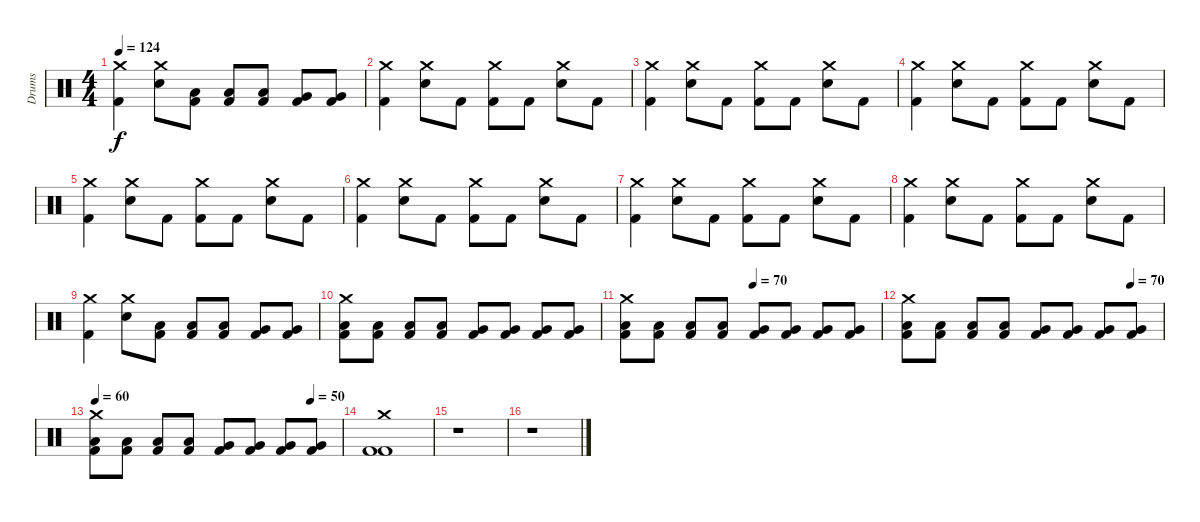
\track ("Drums" "Drums") {instrument percussion}
\staff {score}
\articulation defaults
\ts (4 4)
\tempo 124
\clef neutral
\ks c
("Crash medium (hit)" "Kick (hit) 2").4{dy f} ("Crash medium (hit)" "Electric Snare (hit)").8 ("Low Tom (hit)" "Kick (hit) 2").8 ("Low Tom (hit)" "Kick (hit) 2").8 ("Low Tom (hit)" "Kick (hit) 2").8 ("Very Low Tom (hit)" "Kick (hit) 2").8 ("Very Low Tom (hit)" "Kick (hit) 2").8 |
("Crash medium (hit)" "Kick (hit) 2").4 ("Crash medium (hit)" "Electric Snare (hit)").8 "Kick (hit) 2".8 ("Crash medium (hit)" "Kick (hit) 2").8 "Kick (hit) 2".8 ("Crash medium (hit)" "Electric Snare (hit)").8 "Kick (hit) 2".8 |
("Crash medium (hit)" "Kick (hit) 2").4 ("Crash medium (hit)" "Electric Snare (hit)").8 "Kick (hit) 2".8 ("Crash medium (hit)" "Kick (hit) 2").8 "Kick (hit) 2".8 ("Crash medium (hit)" "Electric Snare (hit)").8 "Kick (hit) 2".8 |
("Crash medium (hit)" "Kick (hit) 2").4 ("Crash medium (hit)" "Electric Snare (hit)").8 "Kick (hit) 2".8 ("Crash medium (hit)" "Kick (hit) 2").8 "Kick (hit) 2".8 ("Crash medium (hit)" "Electric Snare (hit)").8 "Kick (hit) 2".8 |
("Crash medium (hit)" "Kick (hit) 2").4 ("Crash medium (hit)" "Electric Snare (hit)").8 "Kick (hit) 2".8 ("Crash medium (hit)" "Kick (hit) 2").8 "Kick (hit) 2".8 ("Crash medium (hit)" "Electric Snare (hit)").8 "Kick (hit) 2".8 |
("Crash medium (hit)" "Kick (hit) 2").4 ("Crash medium (hit)" "Electric Snare (hit)").8 "Kick (hit) 2".8 ("Crash medium (hit)" "Kick (hit) 2").8 "Kick (hit) 2".8 ("Crash medium (hit)" "Electric Snare (hit)").8 "Kick (hit) 2".8 |
("Crash medium (hit)" "Kick (hit) 2").4 ("Crash medium (hit)" "Electric Snare (hit)").8 "Kick (hit) 2".8 ("Crash medium (hit)" "Kick (hit) 2").8 "Kick (hit) 2".8 ("Crash medium (hit)" "Electric Snare (hit)").8 "Kick (hit) 2".8 |
("Crash medium (hit)" "Kick (hit) 2").4 ("Crash medium (hit)" "Electric Snare (hit)").8 "Kick (hit) 2".8 ("Crash medium (hit)" "Kick (hit) 2").8 "Kick (hit) 2".8 ("Crash medium (hit)" "Electric Snare (hit)").8 "Kick (hit) 2".8 |
("Crash medium (hit)" "Kick (hit) 2").4 ("Crash medium (hit)" "Electric Snare (hit)").8 ("Low Tom (hit)" "Kick (hit) 2").8 ("Low Tom (hit)" "Kick (hit) 2").8 ("Low Tom (hit)" "Kick (hit) 2").8 ("Very Low Tom (hit)" "Kick (hit) 2").8 ("Very Low Tom (hit)" "Kick (hit) 2").8 |
("Crash medium (hit)" "Low Tom (hit)" "Kick (hit) 2").8 ("Low Tom (hit)" "Kick (hit) 2").8 ("Low Tom (hit)" "Kick (hit) 2").8 ("Low Tom (hit)" "Kick (hit) 2").8 ("Very Low Tom (hit)" "Kick (hit) 2").8 ("Very Low Tom (hit)" "Kick (hit) 2").8 ("Very Low Tom (hit)" "Kick (hit) 2").8 ("Very Low Tom (hit)" "Kick (hit) 2").8 |
\tempo (70 0.5)
("Crash medium (hit)" "Low Tom (hit)" "Kick (hit) 2").8 ("Low Tom (hit)" "Kick (hit) 2").8 ("Low Tom (hit)" "Kick (hit) 2").8 ("Low Tom (hit)" "Kick (hit) 2").8 ("Very Low Tom (hit)" "Kick (hit) 2").8 ("Very Low Tom (hit)" "Kick (hit) 2").8 ("Very Low Tom (hit)" "Kick (hit) 2").8 ("Very Low Tom (hit)" "Kick (hit) 2").8 |
\tempo (70 0.875)
("Crash medium (hit)" "Low Tom (hit)" "Kick (hit) 2").8 ("Low Tom (hit)" "Kick (hit) 2").8 ("Low Tom (hit)" "Kick (hit) 2").8 ("Low Tom (hit)" "Kick (hit) 2").8 ("Very Low Tom (hit)" "Kick (hit) 2").8 ("Very Low Tom (hit)" "Kick (hit) 2").8 ("Very Low Tom (hit)" "Kick (hit) 2").8 ("Very Low Tom (hit)" "Kick (hit) 2").8 |
\tempo 60
\tempo (50 0.875)
("Crash medium (hit)" "Low Tom (hit)" "Kick (hit) 2").8 ("Low Tom (hit)" "Kick (hit) 2").8 ("Low Tom (hit)" "Kick (hit) 2").8 ("Low Tom (hit)" "Kick (hit) 2").8 ("Very Low Tom (hit)" "Kick (hit) 2").8 ("Very Low Tom (hit)" "Kick (hit) 2").8 ("Very Low Tom (hit)" "Kick (hit) 2").8 ("Very Low Tom (hit)" "Kick (hit) 2").8 |
("Crash medium (hit)" "Kick (hit) 2" "Kick (hit) 2").1 |
r.1 |
r.1
